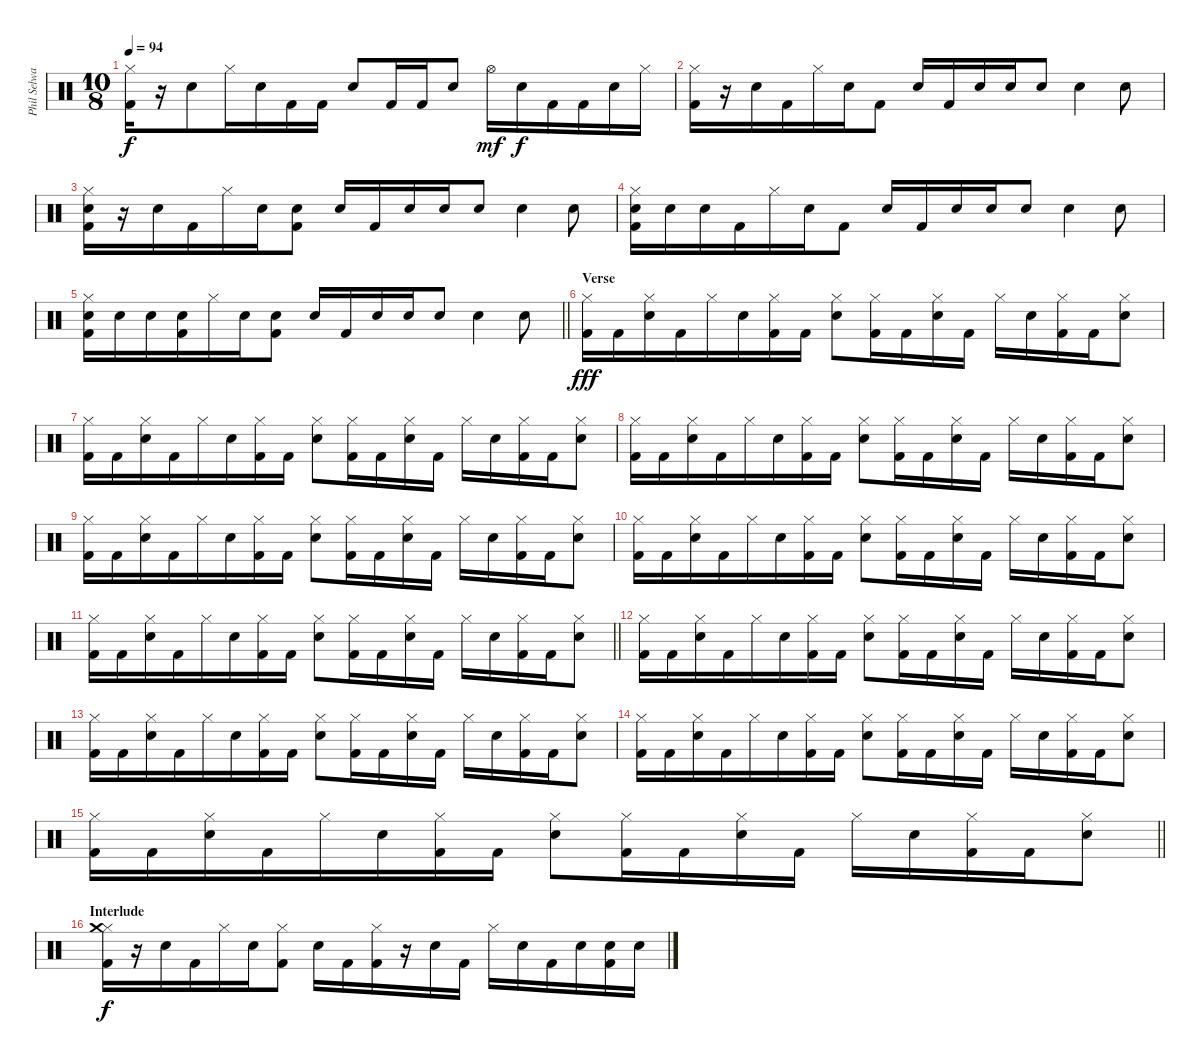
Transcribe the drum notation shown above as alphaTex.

\track ("Phil Selway" "Phil Selwa") {instrument percussion}
\staff {score}
\articulation defaults
\ts (10 8)
\tempo 94
\clef neutral
\ks c
("Hi-Hat (closed)" "Kick (hit) 2").16{dy f} r.16 "Electric Snare (hit)".8 "Hi-Hat (closed)".16 "Electric Snare (hit)".16 "Kick (hit) 2".16 "Kick (hit) 2".16 "Electric Snare (hit)".8 "Kick (hit) 2".16 "Kick (hit) 2".16 "Electric Snare (hit)".8 "Hi-Hat (open)".16{dy mf} "Electric Snare (hit)".16{dy f} "Kick (hit) 2".16 "Kick (hit) 2".16 "Electric Snare (hit)".16 "Hi-Hat (closed)".16 |
("Hi-Hat (closed)" "Kick (hit) 2").16 r.16 "Electric Snare (hit)".16 "Kick (hit) 2".16 "Hi-Hat (closed)".16 "Electric Snare (hit)".16 "Kick (hit) 2".8 "Electric Snare (hit)".16 "Kick (hit) 2".16 "Electric Snare (hit)".16 "Electric Snare (hit)".16 "Electric Snare (hit)".8 "Electric Snare (hit)".4 "Electric Snare (hit)".8 |
("Hi-Hat (closed)" "Electric Snare (hit)" "Kick (hit) 2").16 r.16 "Electric Snare (hit)".16 "Kick (hit) 2".16 "Hi-Hat (closed)".16 "Electric Snare (hit)".16 ("Electric Snare (hit)" "Kick (hit) 2").8 "Electric Snare (hit)".16 "Kick (hit) 2".16 "Electric Snare (hit)".16 "Electric Snare (hit)".16 "Electric Snare (hit)".8 "Electric Snare (hit)".4 "Electric Snare (hit)".8 |
("Hi-Hat (closed)" "Electric Snare (hit)" "Kick (hit) 2").16 "Electric Snare (hit)".16 "Electric Snare (hit)".16 "Kick (hit) 2".16 "Hi-Hat (closed)".16 "Electric Snare (hit)".16 "Kick (hit) 2".8 "Electric Snare (hit)".16 "Kick (hit) 2".16 "Electric Snare (hit)".16 "Electric Snare (hit)".16 "Electric Snare (hit)".8 "Electric Snare (hit)".4 "Electric Snare (hit)".8 |
\barLineRight lightlight
("Hi-Hat (closed)" "Electric Snare (hit)" "Kick (hit) 2").16 "Electric Snare (hit)".16 "Electric Snare (hit)".16 ("Electric Snare (hit)" "Kick (hit) 2").16 "Hi-Hat (closed)".16 "Electric Snare (hit)".16 ("Electric Snare (hit)" "Kick (hit) 2").8 "Electric Snare (hit)".16 "Kick (hit) 2".16 "Electric Snare (hit)".16 "Electric Snare (hit)".16 "Electric Snare (hit)".8 "Electric Snare (hit)".4 "Electric Snare (hit)".8 |
\section ("" "Verse")
("Hi-Hat (closed)" "Kick (hit) 2").16{dy fff} "Kick (hit) 2".16 ("Hi-Hat (closed)" "Electric Snare (hit)").16 "Kick (hit) 2".16 "Hi-Hat (closed)".16 "Electric Snare (hit)".16 ("Hi-Hat (closed)" "Kick (hit) 2").16 "Kick (hit) 2".16 ("Hi-Hat (closed)" "Electric Snare (hit)").8 ("Hi-Hat (closed)" "Kick (hit) 2").16 "Kick (hit) 2".16 ("Hi-Hat (closed)" "Electric Snare (hit)").16 "Kick (hit) 2".16 "Hi-Hat (closed)".16 "Electric Snare (hit)".16 ("Hi-Hat (closed)" "Kick (hit) 2").16 "Kick (hit) 2".16 ("Hi-Hat (closed)" "Electric Snare (hit)").8 |
("Hi-Hat (closed)" "Kick (hit) 2").16 "Kick (hit) 2".16 ("Hi-Hat (closed)" "Electric Snare (hit)").16 "Kick (hit) 2".16 "Hi-Hat (closed)".16 "Electric Snare (hit)".16 ("Hi-Hat (closed)" "Kick (hit) 2").16 "Kick (hit) 2".16 ("Hi-Hat (closed)" "Electric Snare (hit)").8 ("Hi-Hat (closed)" "Kick (hit) 2").16 "Kick (hit) 2".16 ("Hi-Hat (closed)" "Electric Snare (hit)").16 "Kick (hit) 2".16 "Hi-Hat (closed)".16 "Electric Snare (hit)".16 ("Hi-Hat (closed)" "Kick (hit) 2").16 "Kick (hit) 2".16 ("Hi-Hat (closed)" "Electric Snare (hit)").8 |
("Hi-Hat (closed)" "Kick (hit) 2").16 "Kick (hit) 2".16 ("Hi-Hat (closed)" "Electric Snare (hit)").16 "Kick (hit) 2".16 "Hi-Hat (closed)".16 "Electric Snare (hit)".16 ("Hi-Hat (closed)" "Kick (hit) 2").16 "Kick (hit) 2".16 ("Hi-Hat (closed)" "Electric Snare (hit)").8 ("Hi-Hat (closed)" "Kick (hit) 2").16 "Kick (hit) 2".16 ("Hi-Hat (closed)" "Electric Snare (hit)").16 "Kick (hit) 2".16 "Hi-Hat (closed)".16 "Electric Snare (hit)".16 ("Hi-Hat (closed)" "Kick (hit) 2").16 "Kick (hit) 2".16 ("Hi-Hat (closed)" "Electric Snare (hit)").8 |
("Hi-Hat (closed)" "Kick (hit) 2").16 "Kick (hit) 2".16 ("Hi-Hat (closed)" "Electric Snare (hit)").16 "Kick (hit) 2".16 "Hi-Hat (closed)".16 "Electric Snare (hit)".16 ("Hi-Hat (closed)" "Kick (hit) 2").16 "Kick (hit) 2".16 ("Hi-Hat (closed)" "Electric Snare (hit)").8 ("Hi-Hat (closed)" "Kick (hit) 2").16 "Kick (hit) 2".16 ("Hi-Hat (closed)" "Electric Snare (hit)").16 "Kick (hit) 2".16 "Hi-Hat (closed)".16 "Electric Snare (hit)".16 ("Hi-Hat (closed)" "Kick (hit) 2").16 "Kick (hit) 2".16 ("Hi-Hat (closed)" "Electric Snare (hit)").8 |
("Hi-Hat (closed)" "Kick (hit) 2").16 "Kick (hit) 2".16 ("Hi-Hat (closed)" "Electric Snare (hit)").16 "Kick (hit) 2".16 "Hi-Hat (closed)".16 "Electric Snare (hit)".16 ("Hi-Hat (closed)" "Kick (hit) 2").16 "Kick (hit) 2".16 ("Hi-Hat (closed)" "Electric Snare (hit)").8 ("Hi-Hat (closed)" "Kick (hit) 2").16 "Kick (hit) 2".16 ("Hi-Hat (closed)" "Electric Snare (hit)").16 "Kick (hit) 2".16 "Hi-Hat (closed)".16 "Electric Snare (hit)".16 ("Hi-Hat (closed)" "Kick (hit) 2").16 "Kick (hit) 2".16 ("Hi-Hat (closed)" "Electric Snare (hit)").8 |
\barLineRight lightlight
("Hi-Hat (closed)" "Kick (hit) 2").16 "Kick (hit) 2".16 ("Hi-Hat (closed)" "Electric Snare (hit)").16 "Kick (hit) 2".16 "Hi-Hat (closed)".16 "Electric Snare (hit)".16 ("Hi-Hat (closed)" "Kick (hit) 2").16 "Kick (hit) 2".16 ("Hi-Hat (closed)" "Electric Snare (hit)").8 ("Hi-Hat (closed)" "Kick (hit) 2").16 "Kick (hit) 2".16 ("Hi-Hat (closed)" "Electric Snare (hit)").16 "Kick (hit) 2".16 "Hi-Hat (closed)".16 "Electric Snare (hit)".16 ("Hi-Hat (closed)" "Kick (hit) 2").16 "Kick (hit) 2".16 ("Hi-Hat (closed)" "Electric Snare (hit)").8 |
("Hi-Hat (closed)" "Kick (hit) 2").16 "Kick (hit) 2".16 ("Hi-Hat (closed)" "Electric Snare (hit)").16 "Kick (hit) 2".16 "Hi-Hat (closed)".16 "Electric Snare (hit)".16 ("Hi-Hat (closed)" "Kick (hit) 2").16 "Kick (hit) 2".16 ("Hi-Hat (closed)" "Electric Snare (hit)").8 ("Hi-Hat (closed)" "Kick (hit) 2").16 "Kick (hit) 2".16 ("Hi-Hat (closed)" "Electric Snare (hit)").16 "Kick (hit) 2".16 "Hi-Hat (closed)".16 "Electric Snare (hit)".16 ("Hi-Hat (closed)" "Kick (hit) 2").16 "Kick (hit) 2".16 ("Hi-Hat (closed)" "Electric Snare (hit)").8 |
("Hi-Hat (closed)" "Kick (hit) 2").16 "Kick (hit) 2".16 ("Hi-Hat (closed)" "Electric Snare (hit)").16 "Kick (hit) 2".16 "Hi-Hat (closed)".16 "Electric Snare (hit)".16 ("Hi-Hat (closed)" "Kick (hit) 2").16 "Kick (hit) 2".16 ("Hi-Hat (closed)" "Electric Snare (hit)").8 ("Hi-Hat (closed)" "Kick (hit) 2").16 "Kick (hit) 2".16 ("Hi-Hat (closed)" "Electric Snare (hit)").16 "Kick (hit) 2".16 "Hi-Hat (closed)".16 "Electric Snare (hit)".16 ("Hi-Hat (closed)" "Kick (hit) 2").16 "Kick (hit) 2".16 ("Hi-Hat (closed)" "Electric Snare (hit)").8 |
("Hi-Hat (closed)" "Kick (hit) 2").16 "Kick (hit) 2".16 ("Hi-Hat (closed)" "Electric Snare (hit)").16 "Kick (hit) 2".16 "Hi-Hat (closed)".16 "Electric Snare (hit)".16 ("Hi-Hat (closed)" "Kick (hit) 2").16 "Kick (hit) 2".16 ("Hi-Hat (closed)" "Electric Snare (hit)").8 ("Hi-Hat (closed)" "Kick (hit) 2").16 "Kick (hit) 2".16 ("Hi-Hat (closed)" "Electric Snare (hit)").16 "Kick (hit) 2".16 "Hi-Hat (closed)".16 "Electric Snare (hit)".16 ("Hi-Hat (closed)" "Kick (hit) 2").16 "Kick (hit) 2".16 ("Hi-Hat (closed)" "Electric Snare (hit)").8 |
\barLineRight lightlight
("Hi-Hat (closed)" "Kick (hit) 2").16 "Kick (hit) 2".16 ("Hi-Hat (closed)" "Electric Snare (hit)").16 "Kick (hit) 2".16 "Hi-Hat (closed)".16 "Electric Snare (hit)".16 ("Hi-Hat (closed)" "Kick (hit) 2").16 "Kick (hit) 2".16 ("Hi-Hat (closed)" "Electric Snare (hit)").8 ("Hi-Hat (closed)" "Kick (hit) 2").16 "Kick (hit) 2".16 ("Hi-Hat (closed)" "Electric Snare (hit)").16 "Kick (hit) 2".16 "Hi-Hat (closed)".16 "Electric Snare (hit)".16 ("Hi-Hat (closed)" "Kick (hit) 2").16 "Kick (hit) 2".16 ("Hi-Hat (closed)" "Electric Snare (hit)").8 |
\section ("" "Interlude")
("Hi-Hat (closed)" "Crash medium (hit)" "Kick (hit) 2").16{dy f} r.16 "Electric Snare (hit)".16 "Kick (hit) 2".16 "Hi-Hat (closed)".16 "Electric Snare (hit)".16 ("Hi-Hat (closed)" "Kick (hit) 2").8 "Electric Snare (hit)".16 "Kick (hit) 2".16 ("Hi-Hat (closed)" "Kick (hit) 2").16 r.16 "Electric Snare (hit)".16 "Kick (hit) 2".16 "Hi-Hat (closed)".16 "Electric Snare (hit)".16 "Kick (hit) 2".16 "Electric Snare (hit)".16 ("Electric Snare (hit)" "Kick (hit) 2").16 "Electric Snare (hit)".16
